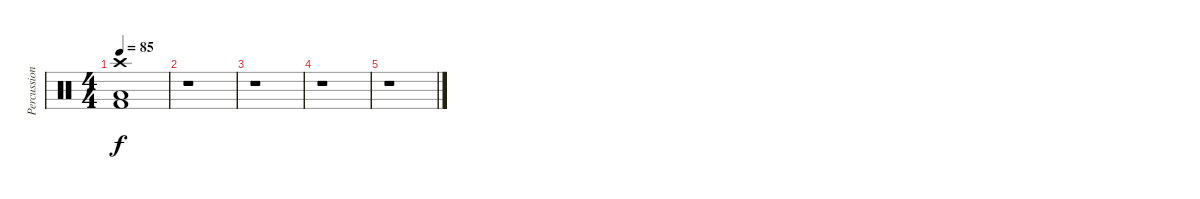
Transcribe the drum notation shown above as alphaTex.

\track ("Percussion" "Percussion") {instrument percussion}
\staff {score}
\articulation defaults
\ts (4 4)
\tempo 85
\clef neutral
\ks c
("Crash high (hit)" "Low Floor Tom (hit)" "Kick (hit) 2").1{dy f} |
r.1 |
r.1 |
r.1 |
r.1
